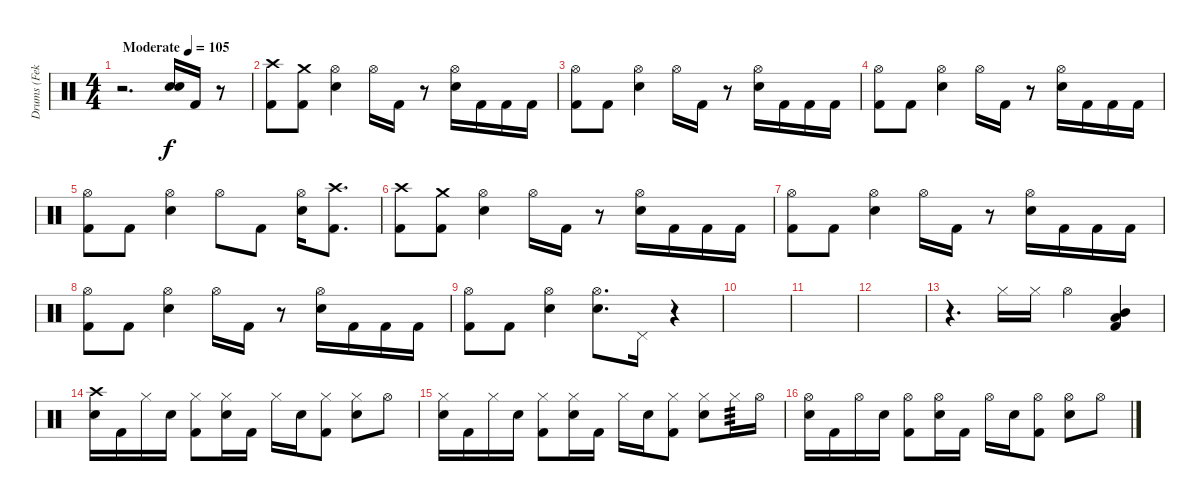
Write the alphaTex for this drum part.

\track ("Drums (Fekete 'Feka' Balázs)" "Drums (Fek") {instrument percussion}
\staff {score}
\articulation defaults
\ts (4 4)
\tempo (105 "Moderate")
\clef neutral
\ks c
r.2{d dy f} ("Snare (hit) 2" "Snare (hit) 2").16 "Kick (hit) 2".16 r.8 |
("Crash high (hit)" "Kick (hit) 2").8 ("Crash medium (hit)" "Kick (hit) 2").8 ("Hi-Hat (open)" "Snare (hit) 2").4 "Hi-Hat (open)".16 "Kick (hit) 2".16 r.8 ("Hi-Hat (open)" "Snare (hit) 2").16 "Kick (hit) 2".16 "Kick (hit) 2".16 "Kick (hit) 2".16 |
("Hi-Hat (open)" "Kick (hit) 2").8 "Kick (hit) 2".8 ("Hi-Hat (open)" "Snare (hit) 2").4 "Hi-Hat (open)".16 "Kick (hit) 2".16 r.8 ("Hi-Hat (open)" "Snare (hit) 2").16 "Kick (hit) 2".16 "Kick (hit) 2".16 "Kick (hit) 2".16 |
("Hi-Hat (open)" "Kick (hit) 2").8 "Kick (hit) 2".8 ("Hi-Hat (open)" "Snare (hit) 2").4 "Hi-Hat (open)".16 "Kick (hit) 2".16 r.8 ("Hi-Hat (open)" "Snare (hit) 2").16 "Kick (hit) 2".16 "Kick (hit) 2".16 "Kick (hit) 2".16 |
("Hi-Hat (open)" "Kick (hit) 2").8 "Kick (hit) 2".8 ("Hi-Hat (open)" "Snare (hit) 2").4 "Hi-Hat (open)".8 "Kick (hit) 2".8 ("Hi-Hat (open)" "Snare (hit) 2").16 ("Crash high (hit)" "Kick (hit) 2").8{d} |
("Crash high (hit)" "Kick (hit) 2").8 ("Crash medium (hit)" "Kick (hit) 2").8 ("Hi-Hat (open)" "Snare (hit) 2").4 "Hi-Hat (open)".16 "Kick (hit) 2".16 r.8 ("Hi-Hat (open)" "Snare (hit) 2").16 "Kick (hit) 2".16 "Kick (hit) 2".16 "Kick (hit) 2".16 |
("Hi-Hat (open)" "Kick (hit) 2").8 "Kick (hit) 2".8 ("Hi-Hat (open)" "Snare (hit) 2").4 "Hi-Hat (open)".16 "Kick (hit) 2".16 r.8 ("Hi-Hat (open)" "Snare (hit) 2").16 "Kick (hit) 2".16 "Kick (hit) 2".16 "Kick (hit) 2".16 |
("Hi-Hat (open)" "Kick (hit) 2").8 "Kick (hit) 2".8 ("Hi-Hat (open)" "Snare (hit) 2").4 "Hi-Hat (open)".16 "Kick (hit) 2".16 r.8 ("Hi-Hat (open)" "Snare (hit) 2").16 "Kick (hit) 2".16 "Kick (hit) 2".16 "Kick (hit) 2".16 |
("Hi-Hat (open)" "Kick (hit) 2").8 "Kick (hit) 2".8 ("Hi-Hat (open)" "Snare (hit) 2").4 ("Hi-Hat (open)" "Snare (hit) 2").8{d} "Pedal Hi-Hat (hit)".16 r.4 |
|
|
|
r.4{d} "Hi-Hat (closed)".16 "Hi-Hat (closed)".16 "Hi-Hat (open)".4 ("Low Tom (hit)" "Mid Tom (hit)" "Kick (hit) 2").4 |
("Crash high (hit)" "Snare (hit) 2").16 "Kick (hit) 2".16 "Hi-Hat (closed)".16 "Snare (hit) 2".16 ("Hi-Hat (closed)" "Kick (hit) 2").8 ("Hi-Hat (closed)" "Snare (hit) 2").16 "Kick (hit) 2".16 "Hi-Hat (closed)".16 "Snare (hit) 2".16 ("Hi-Hat (closed)" "Kick (hit) 2").8 ("Hi-Hat (closed)" "Snare (hit) 2").8 "Hi-Hat (open)".8 |
("Hi-Hat (closed)" "Snare (hit) 2").16 "Kick (hit) 2".16 "Hi-Hat (closed)".16 "Snare (hit) 2".16 ("Hi-Hat (closed)" "Kick (hit) 2").8 ("Hi-Hat (closed)" "Snare (hit) 2").16 "Kick (hit) 2".16 "Hi-Hat (closed)".16 "Snare (hit) 2".16 ("Hi-Hat (closed)" "Kick (hit) 2").8 ("Hi-Hat (closed)" "Snare (hit) 2").8 "Hi-Hat (closed)".16{tp 3} "Hi-Hat (open)".16 |
("Hi-Hat (open)" "Snare (hit) 2").16 "Kick (hit) 2".16 "Hi-Hat (open)".16 "Snare (hit) 2".16 ("Hi-Hat (open)" "Kick (hit) 2").8 ("Hi-Hat (open)" "Snare (hit) 2").16 "Kick (hit) 2".16 "Hi-Hat (open)".16 "Snare (hit) 2".16 ("Hi-Hat (open)" "Kick (hit) 2").8 ("Hi-Hat (open)" "Snare (hit) 2").8 "Hi-Hat (open)".8
